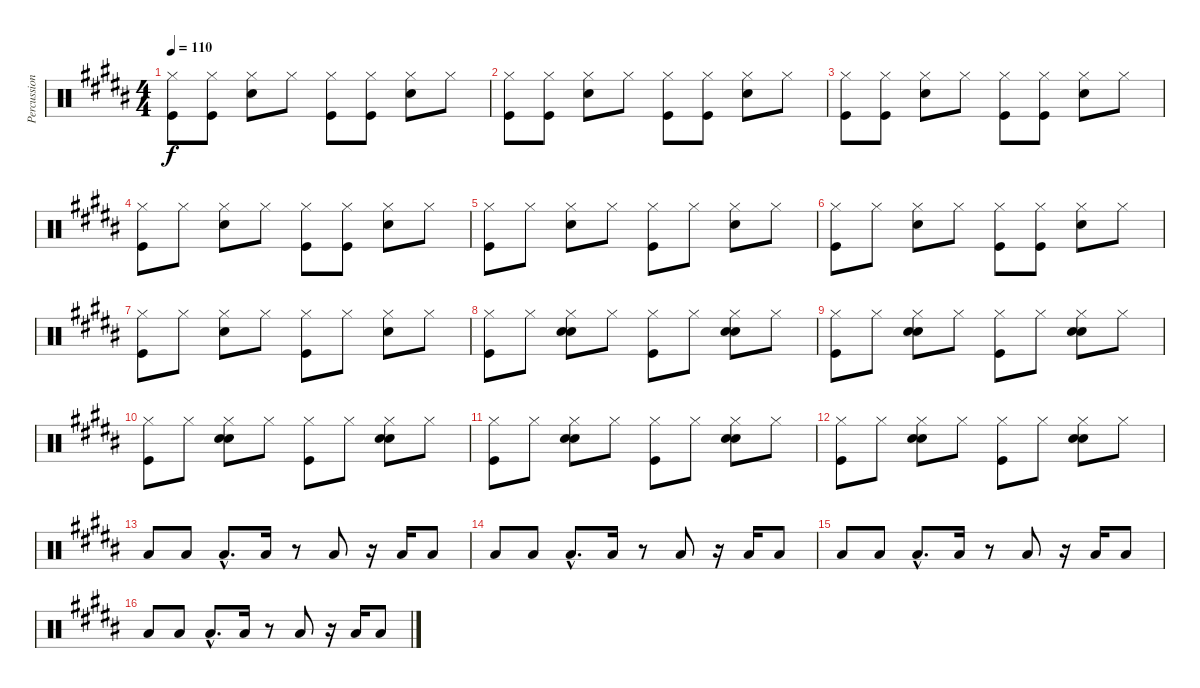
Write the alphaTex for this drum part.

\track ("Percussions" "Percussion") {instrument percussion}
\staff {score}
\articulation defaults
\ts (4 4)
\tempo 110
\clef neutral
\ks b
("Hi-Hat (closed)" "Kick (hit)").8{dy f} ("Hi-Hat (closed)" "Kick (hit)").8 ("Hi-Hat (closed)" "Snare (hit) 2").8 "Hi-Hat (closed)".8 ("Hi-Hat (closed)" "Kick (hit)").8 ("Hi-Hat (closed)" "Kick (hit)").8 ("Hi-Hat (closed)" "Snare (hit) 2").8 "Hi-Hat (closed)".8 |
("Hi-Hat (closed)" "Kick (hit)").8 ("Hi-Hat (closed)" "Kick (hit)").8 ("Hi-Hat (closed)" "Snare (hit) 2").8 "Hi-Hat (closed)".8 ("Hi-Hat (closed)" "Kick (hit)").8 ("Hi-Hat (closed)" "Kick (hit)").8 ("Hi-Hat (closed)" "Snare (hit) 2").8 "Hi-Hat (closed)".8 |
("Hi-Hat (closed)" "Kick (hit)").8 ("Hi-Hat (closed)" "Kick (hit)").8 ("Hi-Hat (closed)" "Snare (hit) 2").8 "Hi-Hat (closed)".8 ("Hi-Hat (closed)" "Kick (hit)").8 ("Hi-Hat (closed)" "Kick (hit)").8 ("Hi-Hat (closed)" "Snare (hit) 2").8 "Hi-Hat (closed)".8 |
("Hi-Hat (closed)" "Kick (hit)").8 "Hi-Hat (closed)".8 ("Hi-Hat (closed)" "Snare (hit) 2").8 "Hi-Hat (closed)".8 ("Hi-Hat (closed)" "Kick (hit)").8 ("Hi-Hat (closed)" "Kick (hit)").8 ("Hi-Hat (closed)" "Snare (hit) 2").8 "Hi-Hat (closed)".8 |
("Hi-Hat (closed)" "Kick (hit)").8 "Hi-Hat (closed)".8 ("Hi-Hat (closed)" "Snare (hit) 2").8 "Hi-Hat (closed)".8 ("Hi-Hat (closed)" "Kick (hit)").8 "Hi-Hat (closed)".8 ("Hi-Hat (closed)" "Snare (hit) 2").8 "Hi-Hat (closed)".8 |
("Hi-Hat (closed)" "Kick (hit)").8 "Hi-Hat (closed)".8 ("Hi-Hat (closed)" "Snare (hit) 2").8 "Hi-Hat (closed)".8 ("Hi-Hat (closed)" "Kick (hit)").8 ("Hi-Hat (closed)" "Kick (hit)").8 ("Hi-Hat (closed)" "Snare (hit) 2").8 "Hi-Hat (closed)".8 |
("Hi-Hat (closed)" "Kick (hit)").8 "Hi-Hat (closed)".8 ("Hi-Hat (closed)" "Snare (hit) 2").8 "Hi-Hat (closed)".8 ("Hi-Hat (closed)" "Kick (hit)").8 "Hi-Hat (closed)".8 ("Hi-Hat (closed)" "Snare (hit) 2").8 "Hi-Hat (closed)".8 |
("Hi-Hat (closed)" "Kick (hit)").8 "Hi-Hat (closed)".8 ("Hi-Hat (closed)" "Snare (hit) 2" "Snare (hit) 2").8 "Hi-Hat (closed)".8 ("Hi-Hat (closed)" "Kick (hit)").8 "Hi-Hat (closed)".8 ("Hi-Hat (closed)" "Snare (hit) 2" "Snare (hit) 2").8 "Hi-Hat (closed)".8 |
("Hi-Hat (closed)" "Kick (hit)").8 "Hi-Hat (closed)".8 ("Hi-Hat (closed)" "Snare (hit) 2" "Snare (hit) 2").8 "Hi-Hat (closed)".8 ("Hi-Hat (closed)" "Kick (hit)").8 "Hi-Hat (closed)".8 ("Hi-Hat (closed)" "Snare (hit) 2" "Snare (hit) 2").8 "Hi-Hat (closed)".8 |
("Hi-Hat (closed)" "Kick (hit)").8 "Hi-Hat (closed)".8 ("Hi-Hat (closed)" "Snare (hit) 2" "Snare (hit) 2").8 "Hi-Hat (closed)".8 ("Hi-Hat (closed)" "Kick (hit)").8 "Hi-Hat (closed)".8 ("Hi-Hat (closed)" "Snare (hit) 2" "Snare (hit) 2").8 "Hi-Hat (closed)".8 |
("Hi-Hat (closed)" "Kick (hit)").8 "Hi-Hat (closed)".8 ("Hi-Hat (closed)" "Snare (hit) 2" "Snare (hit) 2").8 "Hi-Hat (closed)".8 ("Hi-Hat (closed)" "Kick (hit)").8 "Hi-Hat (closed)".8 ("Hi-Hat (closed)" "Snare (hit) 2" "Snare (hit) 2").8 "Hi-Hat (closed)".8 |
("Hi-Hat (closed)" "Kick (hit)").8 "Hi-Hat (closed)".8 ("Hi-Hat (closed)" "Snare (hit) 2" "Snare (hit) 2").8 "Hi-Hat (closed)".8 ("Hi-Hat (closed)" "Kick (hit)").8 "Hi-Hat (closed)".8 ("Hi-Hat (closed)" "Snare (hit) 2" "Snare (hit) 2").8 "Hi-Hat (closed)".8 |
"Low Floor Tom (hit)".8 "Low Floor Tom (hit)".8 "Low Floor Tom (hit)"{hac}.8{d} "Low Floor Tom (hit)".16 r.8 "Low Floor Tom (hit)".8 r.16 "Low Floor Tom (hit)".16 "Low Floor Tom (hit)".8 |
"Low Floor Tom (hit)".8 "Low Floor Tom (hit)".8 "Low Floor Tom (hit)"{hac}.8{d} "Low Floor Tom (hit)".16 r.8 "Low Floor Tom (hit)".8 r.16 "Low Floor Tom (hit)".16 "Low Floor Tom (hit)".8 |
"Low Floor Tom (hit)".8 "Low Floor Tom (hit)".8 "Low Floor Tom (hit)"{hac}.8{d} "Low Floor Tom (hit)".16 r.8 "Low Floor Tom (hit)".8 r.16 "Low Floor Tom (hit)".16 "Low Floor Tom (hit)".8 |
"Low Floor Tom (hit)".8 "Low Floor Tom (hit)".8 "Low Floor Tom (hit)"{hac}.8{d} "Low Floor Tom (hit)".16 r.8 "Low Floor Tom (hit)".8 r.16 "Low Floor Tom (hit)".16 "Low Floor Tom (hit)".8
